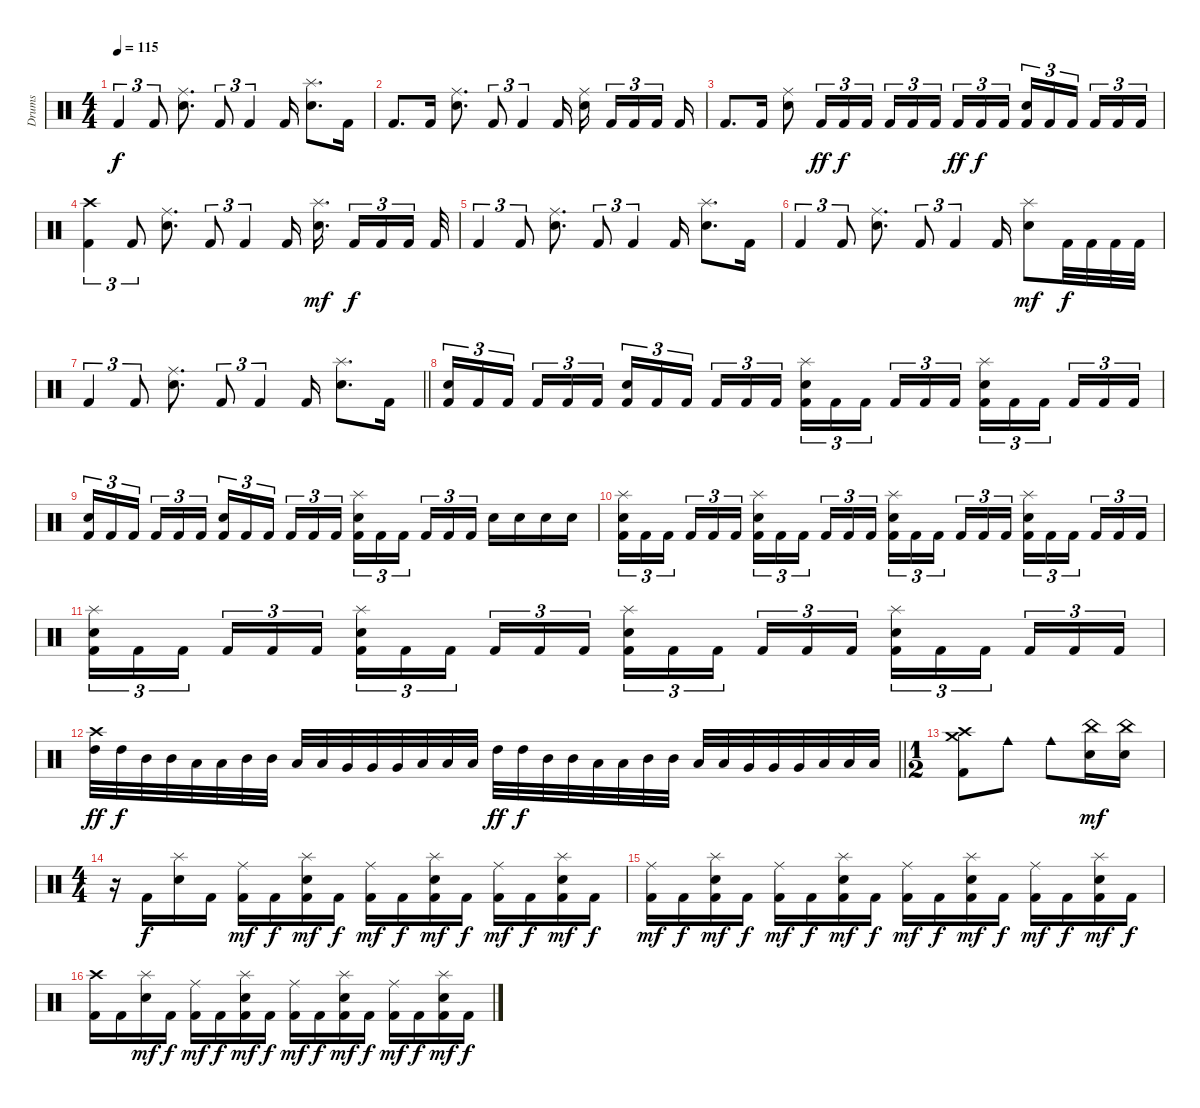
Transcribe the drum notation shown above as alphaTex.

\track ("Drums" "Drums") {instrument percussion}
\staff {score}
\articulation defaults
\ts (4 4)
\tempo 115
\clef neutral
\ks c "Kick (hit) 2".4{tu (3 2) dy f} "Kick (hit) 2".8{tu (3 2)}
("Ride (middle)" "Snare (hit) 2").8{d} "Kick (hit) 2".8{tu (3 2)} "Kick (hit) 2".4{tu (3 2)} "Kick (hit) 2".16 ("Splash (hit)" "Snare (hit) 2").8{d} "Kick (hit) 2".16 |
"Kick (hit) 2".8{d} "Kick (hit) 2".16 ("Ride (middle)" "Snare (hit) 2").8{d} "Kick (hit) 2".8{tu (3 2)} "Kick (hit) 2".4{tu (3 2)} "Kick (hit) 2".16 ("Ride (middle)" "Snare (hit) 2").16{beam splitsecondary} "Kick (hit) 2".16{tu (3 2)} "Kick (hit) 2".16{tu (3 2)} "Kick (hit) 2".16{tu (3 2) beam splitsecondary} "Kick (hit) 2".16 |
"Kick (hit) 2".8{d} "Kick (hit) 2".16 ("Ride (middle)" "Snare (hit) 2").8 "Kick (hit) 2".16{tu (3 2) dy ff} "Kick (hit) 2".16{tu (3 2) dy f} "Kick (hit) 2".16{tu (3 2)} "Kick (hit) 2".16{tu (3 2)} "Kick (hit) 2".16{tu (3 2)} "Kick (hit) 2".16{tu (3 2) beam splitsecondary} "Kick (hit) 2".16{tu (3 2) dy ff} "Kick (hit) 2".16{tu (3 2) dy f} "Kick (hit) 2".16{tu (3 2)} ("Snare (hit) 2" "Kick (hit) 2").16{tu (3 2)} "Kick (hit) 2".16{tu (3 2)} "Kick (hit) 2".16{tu (3 2) beam splitsecondary} "Kick (hit) 2".16{tu (3 2)} "Kick (hit) 2".16{tu (3 2)} "Kick (hit) 2".16{tu (3 2)} |
("Crash high (hit)" "Kick (hit) 2").4{tu (3 2)} "Kick (hit) 2".8{tu (3 2)} ("Ride (middle)" "Snare (hit) 2").8{d} "Kick (hit) 2".8{tu (3 2)} "Kick (hit) 2".4{tu (3 2)} "Kick (hit) 2".16 ("Splash (hit)" "Snare (hit) 2").16{d dy mf beam splitsecondary} "Kick (hit) 2".16{tu (3 2) dy f} "Kick (hit) 2".16{tu (3 2)} "Kick (hit) 2".16{tu (3 2) beam splitsecondary} "Kick (hit) 2".32 |
"Kick (hit) 2".4{tu (3 2)} "Kick (hit) 2".8{tu (3 2)} ("Ride (middle)" "Snare (hit) 2").8{d} "Kick (hit) 2".8{tu (3 2)} "Kick (hit) 2".4{tu (3 2)} "Kick (hit) 2".16 ("Splash (hit)" "Snare (hit) 2").8{d} "Kick (hit) 2".16 |
"Kick (hit) 2".4{tu (3 2)} "Kick (hit) 2".8{tu (3 2)} ("Ride (middle)" "Snare (hit) 2").8{d} "Kick (hit) 2".8{tu (3 2)} "Kick (hit) 2".4{tu (3 2)} "Kick (hit) 2".16 ("Splash (hit)" "Snare (hit) 2").8{dy mf} "Kick (hit) 2".32{dy f} "Kick (hit) 2".32 "Kick (hit) 2".32 "Kick (hit) 2".32 |
\barLineRight lightlight "Kick (hit) 2".4{tu (3 2)} "Kick (hit) 2".8{tu (3 2)}
("Ride (middle)" "Snare (hit) 2").8{d} "Kick (hit) 2".8{tu (3 2)} "Kick (hit) 2".4{tu (3 2)} "Kick (hit) 2".16 ("Splash (hit)" "Snare (hit) 2").8{d} "Kick (hit) 2".16 |
\section ("" "")
("Snare (hit) 2" "Kick (hit) 2").16{tu (3 2)} "Kick (hit) 2".16{tu (3 2)} "Kick (hit) 2".16{tu (3 2) beam splitsecondary} "Kick (hit) 2".16{tu (3 2)} "Kick (hit) 2".16{tu (3 2)} "Kick (hit) 2".16{tu (3 2)} ("Snare (hit) 2" "Kick (hit) 2").16{tu (3 2)} "Kick (hit) 2".16{tu (3 2)} "Kick (hit) 2".16{tu (3 2) beam splitsecondary} "Kick (hit) 2".16{tu (3 2)} "Kick (hit) 2".16{tu (3 2)} "Kick (hit) 2".16{tu (3 2)} ("Splash (hit)" "Snare (hit) 2" "Kick (hit) 2").16{tu (3 2)} "Kick (hit) 2".16{tu (3 2)} "Kick (hit) 2".16{tu (3 2) beam splitsecondary} "Kick (hit) 2".16{tu (3 2)} "Kick (hit) 2".16{tu (3 2)} "Kick (hit) 2".16{tu (3 2)} ("Splash (hit)" "Snare (hit) 2" "Kick (hit) 2").16{tu (3 2)} "Kick (hit) 2".16{tu (3 2)} "Kick (hit) 2".16{tu (3 2) beam splitsecondary} "Kick (hit) 2".16{tu (3 2)} "Kick (hit) 2".16{tu (3 2)} "Kick (hit) 2".16{tu (3 2)} |
("Snare (hit) 2" "Kick (hit) 2").16{tu (3 2)} "Kick (hit) 2".16{tu (3 2)} "Kick (hit) 2".16{tu (3 2) beam splitsecondary} "Kick (hit) 2".16{tu (3 2)} "Kick (hit) 2".16{tu (3 2)} "Kick (hit) 2".16{tu (3 2)} ("Snare (hit) 2" "Kick (hit) 2").16{tu (3 2)} "Kick (hit) 2".16{tu (3 2)} "Kick (hit) 2".16{tu (3 2) beam splitsecondary} "Kick (hit) 2".16{tu (3 2)} "Kick (hit) 2".16{tu (3 2)} "Kick (hit) 2".16{tu (3 2)} ("Splash (hit)" "Snare (hit) 2" "Kick (hit) 2").16{tu (3 2)} "Kick (hit) 2".16{tu (3 2)} "Kick (hit) 2".16{tu (3 2) beam splitsecondary} "Kick (hit) 2".16{tu (3 2)} "Kick (hit) 2".16{tu (3 2)} "Kick (hit) 2".16{tu (3 2)} "Snare (hit) 2".16 "Snare (hit) 2".16 "Snare (hit) 2".16 "Snare (hit) 2".16 |
("Splash (hit)" "Snare (hit) 2" "Kick (hit) 2").16{tu (3 2)} "Kick (hit) 2".16{tu (3 2)} "Kick (hit) 2".16{tu (3 2) beam splitsecondary} "Kick (hit) 2".16{tu (3 2)} "Kick (hit) 2".16{tu (3 2)} "Kick (hit) 2".16{tu (3 2)} ("Splash (hit)" "Snare (hit) 2" "Kick (hit) 2").16{tu (3 2)} "Kick (hit) 2".16{tu (3 2)} "Kick (hit) 2".16{tu (3 2) beam splitsecondary} "Kick (hit) 2".16{tu (3 2)} "Kick (hit) 2".16{tu (3 2)} "Kick (hit) 2".16{tu (3 2)} ("Splash (hit)" "Snare (hit) 2" "Kick (hit) 2").16{tu (3 2)} "Kick (hit) 2".16{tu (3 2)} "Kick (hit) 2".16{tu (3 2) beam splitsecondary} "Kick (hit) 2".16{tu (3 2)} "Kick (hit) 2".16{tu (3 2)} "Kick (hit) 2".16{tu (3 2)} ("Splash (hit)" "Snare (hit) 2" "Kick (hit) 2").16{tu (3 2)} "Kick (hit) 2".16{tu (3 2)} "Kick (hit) 2".16{tu (3 2) beam splitsecondary} "Kick (hit) 2".16{tu (3 2)} "Kick (hit) 2".16{tu (3 2)} "Kick (hit) 2".16{tu (3 2)} |
("Splash (hit)" "Snare (hit) 2" "Kick (hit) 2").16{tu (3 2)} "Kick (hit) 2".16{tu (3 2)} "Kick (hit) 2".16{tu (3 2) beam splitsecondary} "Kick (hit) 2".16{tu (3 2)} "Kick (hit) 2".16{tu (3 2)} "Kick (hit) 2".16{tu (3 2)} ("Splash (hit)" "Snare (hit) 2" "Kick (hit) 2").16{tu (3 2)} "Kick (hit) 2".16{tu (3 2)} "Kick (hit) 2".16{tu (3 2) beam splitsecondary} "Kick (hit) 2".16{tu (3 2)} "Kick (hit) 2".16{tu (3 2)} "Kick (hit) 2".16{tu (3 2)} ("Splash (hit)" "Snare (hit) 2" "Kick (hit) 2").16{tu (3 2)} "Kick (hit) 2".16{tu (3 2)} "Kick (hit) 2".16{tu (3 2) beam splitsecondary} "Kick (hit) 2".16{tu (3 2)} "Kick (hit) 2".16{tu (3 2)} "Kick (hit) 2".16{tu (3 2)} ("Splash (hit)" "Snare (hit) 2" "Kick (hit) 2").16{tu (3 2)} "Kick (hit) 2".16{tu (3 2)} "Kick (hit) 2".16{tu (3 2) beam splitsecondary} "Kick (hit) 2".16{tu (3 2)} "Kick (hit) 2".16{tu (3 2)} "Kick (hit) 2".16{tu (3 2)} |
\barLineRight lightlight
("Crash high (hit)" "High Tom (hit)").32{dy ff} "High Tom (hit)".32{dy f} "Mid Tom (hit)".32 "Mid Tom (hit)".32 "Low Tom (hit)".32 "Low Tom (hit)".32 "Mid Tom (hit)".32 "Mid Tom (hit)".32 "Low Tom (hit)".32 "Low Tom (hit)".32 "Very Low Tom (hit)".32 "Very Low Tom (hit)".32 "Very Low Tom (hit)".32 "Low Floor Tom (hit)".32 "Low Floor Tom (hit)".32 "Low Floor Tom (hit)".32 "High Tom (hit)".32{dy ff} "High Tom (hit)".32{dy f} "Mid Tom (hit)".32 "Mid Tom (hit)".32 "Low Tom (hit)".32 "Low Tom (hit)".32 "Mid Tom (hit)".32 "Mid Tom (hit)".32 "Low Tom (hit)".32 "Low Tom (hit)".32 "Very Low Tom (hit)".32 "Very Low Tom (hit)".32 "Very Low Tom (hit)".32 "Low Floor Tom (hit)".32 "Low Floor Tom (hit)".32 "Low Floor Tom (hit)".32 |
\ts (1 2)
("Crash medium (hit)" "Crash high (hit)" "Kick (hit) 2").8 "Cowbell medium (hit)".8 "Cowbell medium (hit)".8 ("China (hit)" "Snare (hit) 2").16{dy mf} ("China (hit)" "Snare (hit) 2").16 |
\ts (4 4)
r.16 "Kick (hit) 2".16{dy f} ("Splash (hit)" "Snare (hit) 2").16 "Kick (hit) 2".16 ("Ride (middle)" "Kick (hit) 2").16{dy mf} "Kick (hit) 2".16{dy f} ("Splash (hit)" "Snare (hit) 2" "Kick (hit) 2").16{dy mf} "Kick (hit) 2".16{dy f} ("Ride (middle)" "Kick (hit) 2").16{dy mf} "Kick (hit) 2".16{dy f} ("Splash (hit)" "Snare (hit) 2" "Kick (hit) 2").16{dy mf} "Kick (hit) 2".16{dy f} ("Ride (middle)" "Kick (hit) 2").16{dy mf} "Kick (hit) 2".16{dy f} ("Splash (hit)" "Snare (hit) 2" "Kick (hit) 2").16{dy mf} "Kick (hit) 2".16{dy f} |
("Ride (middle)" "Kick (hit) 2").16{dy mf} "Kick (hit) 2".16{dy f} ("Splash (hit)" "Snare (hit) 2" "Kick (hit) 2").16{dy mf} "Kick (hit) 2".16{dy f} ("Ride (middle)" "Kick (hit) 2").16{dy mf} "Kick (hit) 2".16{dy f} ("Splash (hit)" "Snare (hit) 2" "Kick (hit) 2").16{dy mf} "Kick (hit) 2".16{dy f} ("Ride (middle)" "Kick (hit) 2").16{dy mf} "Kick (hit) 2".16{dy f} ("Splash (hit)" "Snare (hit) 2" "Kick (hit) 2").16{dy mf} "Kick (hit) 2".16{dy f} ("Ride (middle)" "Kick (hit) 2").16{dy mf} "Kick (hit) 2".16{dy f} ("Splash (hit)" "Snare (hit) 2" "Kick (hit) 2").16{dy mf} "Kick (hit) 2".16{dy f} |
("Crash high (hit)" "Kick (hit) 2").16 "Kick (hit) 2".16 ("Splash (hit)" "Snare (hit) 2").16{dy mf} "Kick (hit) 2".16{dy f} ("Ride (middle)" "Kick (hit) 2").16{dy mf} "Kick (hit) 2".16{dy f} ("Splash (hit)" "Snare (hit) 2" "Kick (hit) 2").16{dy mf} "Kick (hit) 2".16{dy f} ("Ride (middle)" "Kick (hit) 2").16{dy mf} "Kick (hit) 2".16{dy f} ("Splash (hit)" "Snare (hit) 2" "Kick (hit) 2").16{dy mf} "Kick (hit) 2".16{dy f} ("Ride (middle)" "Kick (hit) 2").16{dy mf} "Kick (hit) 2".16{dy f} ("Splash (hit)" "Snare (hit) 2" "Kick (hit) 2").16{dy mf} "Kick (hit) 2".16{dy f}
